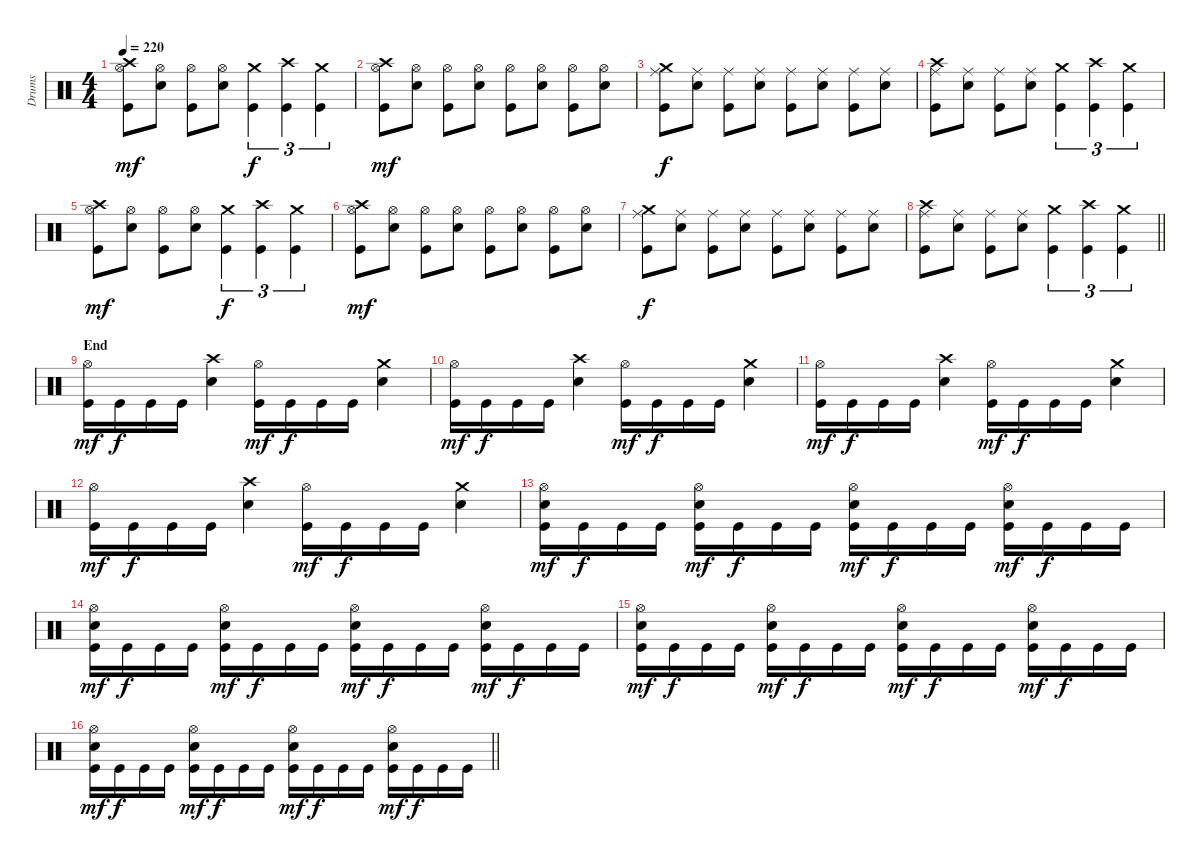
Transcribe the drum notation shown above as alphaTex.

\track ("Drums" "Drums") {instrument percussion}
\staff {score}
\articulation defaults
\ts (4 4)
\tempo 220
\clef neutral
\ks c
("Crash high (hit)" "Hi-Hat (open)" "Kick (hit)").8{dy mf} ("Hi-Hat (open)" "Electric Snare (hit)").8 ("Hi-Hat (open)" "Kick (hit)").8 ("Hi-Hat (open)" "Electric Snare (hit)").8 ("Crash medium (hit)" "Kick (hit)").4{tu (3 2) dy f} ("Crash high (hit)" "Kick (hit)").4{tu (3 2)} ("Crash medium (hit)" "Kick (hit)").4{tu (3 2)} |
("Crash high (hit)" "Hi-Hat (open)" "Kick (hit)").8{dy mf} ("Hi-Hat (open)" "Electric Snare (hit)").8 ("Hi-Hat (open)" "Kick (hit)").8 ("Hi-Hat (open)" "Electric Snare (hit)").8 ("Hi-Hat (open)" "Kick (hit)").8 ("Hi-Hat (open)" "Electric Snare (hit)").8 ("Hi-Hat (open)" "Kick (hit)").8 ("Hi-Hat (open)" "Electric Snare (hit)").8 |
("Crash medium (hit)" "Ride (middle)" "Kick (hit)").8{dy f} ("Ride (middle)" "Electric Snare (hit)").8 ("Ride (middle)" "Kick (hit)").8 ("Ride (middle)" "Electric Snare (hit)").8 ("Ride (middle)" "Kick (hit)").8 ("Ride (middle)" "Electric Snare (hit)").8 ("Ride (middle)" "Kick (hit)").8 ("Ride (middle)" "Electric Snare (hit)").8 |
("Crash high (hit)" "Ride (middle)" "Kick (hit)").8 ("Ride (middle)" "Electric Snare (hit)").8 ("Ride (middle)" "Kick (hit)").8 ("Ride (middle)" "Electric Snare (hit)").8 ("Crash medium (hit)" "Kick (hit)").4{tu (3 2)} ("Crash high (hit)" "Kick (hit)").4{tu (3 2)} ("Crash medium (hit)" "Kick (hit)").4{tu (3 2)} |
("Crash high (hit)" "Hi-Hat (open)" "Kick (hit)").8{dy mf} ("Hi-Hat (open)" "Electric Snare (hit)").8 ("Hi-Hat (open)" "Kick (hit)").8 ("Hi-Hat (open)" "Electric Snare (hit)").8 ("Crash medium (hit)" "Kick (hit)").4{tu (3 2) dy f} ("Crash high (hit)" "Kick (hit)").4{tu (3 2)} ("Crash medium (hit)" "Kick (hit)").4{tu (3 2)} |
("Crash high (hit)" "Hi-Hat (open)" "Kick (hit)").8{dy mf} ("Hi-Hat (open)" "Electric Snare (hit)").8 ("Hi-Hat (open)" "Kick (hit)").8 ("Hi-Hat (open)" "Electric Snare (hit)").8 ("Hi-Hat (open)" "Kick (hit)").8 ("Hi-Hat (open)" "Electric Snare (hit)").8 ("Hi-Hat (open)" "Kick (hit)").8 ("Hi-Hat (open)" "Electric Snare (hit)").8 |
("Crash medium (hit)" "Ride (middle)" "Kick (hit)").8{dy f} ("Ride (middle)" "Electric Snare (hit)").8 ("Ride (middle)" "Kick (hit)").8 ("Ride (middle)" "Electric Snare (hit)").8 ("Ride (middle)" "Kick (hit)").8 ("Ride (middle)" "Electric Snare (hit)").8 ("Ride (middle)" "Kick (hit)").8 ("Ride (middle)" "Electric Snare (hit)").8 |
\barLineRight lightlight
("Crash high (hit)" "Ride (middle)" "Kick (hit)").8 ("Ride (middle)" "Electric Snare (hit)").8 ("Ride (middle)" "Kick (hit)").8 ("Ride (middle)" "Electric Snare (hit)").8 ("Crash medium (hit)" "Kick (hit)").4{tu (3 2)} ("Crash high (hit)" "Kick (hit)").4{tu (3 2)} ("Crash medium (hit)" "Kick (hit)").4{tu (3 2)} |
\section ("" "End")
("Hi-Hat (open)" "Kick (hit)").16{dy mf} "Kick (hit)".16{dy f} "Kick (hit)".16 "Kick (hit)".16 ("Crash high (hit)" "Electric Snare (hit)").4 ("Hi-Hat (open)" "Kick (hit)").16{dy mf} "Kick (hit)".16{dy f} "Kick (hit)".16 "Kick (hit)".16 ("Crash medium (hit)" "Electric Snare (hit)").4 |
("Hi-Hat (open)" "Kick (hit)").16{dy mf} "Kick (hit)".16{dy f} "Kick (hit)".16 "Kick (hit)".16 ("Crash high (hit)" "Electric Snare (hit)").4 ("Hi-Hat (open)" "Kick (hit)").16{dy mf} "Kick (hit)".16{dy f} "Kick (hit)".16 "Kick (hit)".16 ("Crash medium (hit)" "Electric Snare (hit)").4 |
("Hi-Hat (open)" "Kick (hit)").16{dy mf} "Kick (hit)".16{dy f} "Kick (hit)".16 "Kick (hit)".16 ("Crash high (hit)" "Electric Snare (hit)").4 ("Hi-Hat (open)" "Kick (hit)").16{dy mf} "Kick (hit)".16{dy f} "Kick (hit)".16 "Kick (hit)".16 ("Crash medium (hit)" "Electric Snare (hit)").4 |
("Hi-Hat (open)" "Kick (hit)").16{dy mf} "Kick (hit)".16{dy f} "Kick (hit)".16 "Kick (hit)".16 ("Crash high (hit)" "Electric Snare (hit)").4 ("Hi-Hat (open)" "Kick (hit)").16{dy mf} "Kick (hit)".16{dy f} "Kick (hit)".16 "Kick (hit)".16 ("Crash medium (hit)" "Electric Snare (hit)").4 |
("Hi-Hat (open)" "Electric Snare (hit)" "Kick (hit)").16{dy mf} "Kick (hit)".16{dy f} "Kick (hit)".16 "Kick (hit)".16 ("Hi-Hat (open)" "Electric Snare (hit)" "Kick (hit)").16{dy mf} "Kick (hit)".16{dy f} "Kick (hit)".16 "Kick (hit)".16 ("Hi-Hat (open)" "Electric Snare (hit)" "Kick (hit)").16{dy mf} "Kick (hit)".16{dy f} "Kick (hit)".16 "Kick (hit)".16 ("Hi-Hat (open)" "Electric Snare (hit)" "Kick (hit)").16{dy mf} "Kick (hit)".16{dy f} "Kick (hit)".16 "Kick (hit)".16 |
("Hi-Hat (open)" "Electric Snare (hit)" "Kick (hit)").16{dy mf} "Kick (hit)".16{dy f} "Kick (hit)".16 "Kick (hit)".16 ("Hi-Hat (open)" "Electric Snare (hit)" "Kick (hit)").16{dy mf} "Kick (hit)".16{dy f} "Kick (hit)".16 "Kick (hit)".16 ("Hi-Hat (open)" "Electric Snare (hit)" "Kick (hit)").16{dy mf} "Kick (hit)".16{dy f} "Kick (hit)".16 "Kick (hit)".16 ("Hi-Hat (open)" "Electric Snare (hit)" "Kick (hit)").16{dy mf} "Kick (hit)".16{dy f} "Kick (hit)".16 "Kick (hit)".16 |
("Hi-Hat (open)" "Electric Snare (hit)" "Kick (hit)").16{dy mf} "Kick (hit)".16{dy f} "Kick (hit)".16 "Kick (hit)".16 ("Hi-Hat (open)" "Electric Snare (hit)" "Kick (hit)").16{dy mf} "Kick (hit)".16{dy f} "Kick (hit)".16 "Kick (hit)".16 ("Hi-Hat (open)" "Electric Snare (hit)" "Kick (hit)").16{dy mf} "Kick (hit)".16{dy f} "Kick (hit)".16 "Kick (hit)".16 ("Hi-Hat (open)" "Electric Snare (hit)" "Kick (hit)").16{dy mf} "Kick (hit)".16{dy f} "Kick (hit)".16 "Kick (hit)".16 |
\barLineRight lightlight
("Hi-Hat (open)" "Electric Snare (hit)" "Kick (hit)").16{dy mf} "Kick (hit)".16{dy f} "Kick (hit)".16 "Kick (hit)".16 ("Hi-Hat (open)" "Electric Snare (hit)" "Kick (hit)").16{dy mf} "Kick (hit)".16{dy f} "Kick (hit)".16 "Kick (hit)".16 ("Hi-Hat (open)" "Electric Snare (hit)" "Kick (hit)").16{dy mf} "Kick (hit)".16{dy f} "Kick (hit)".16 "Kick (hit)".16 ("Hi-Hat (open)" "Electric Snare (hit)" "Kick (hit)").16{dy mf} "Kick (hit)".16{dy f} "Kick (hit)".16 "Kick (hit)".16
